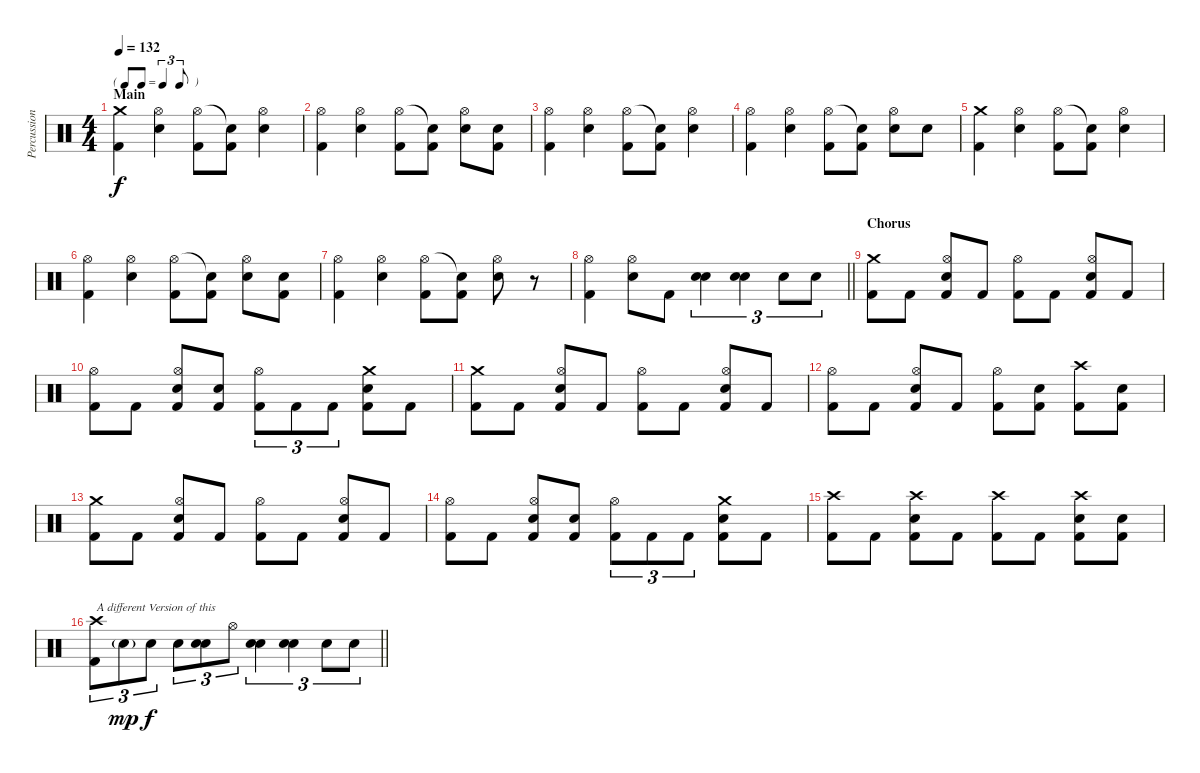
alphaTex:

\track ("Percussion" "Percussion") {instrument percussion}
\staff {score}
\articulation defaults
\ts (4 4)
\tf triplet8th
\section ("" "Main")
\tempo 132
\clef neutral
\ks c
("Crash medium (hit)" "Kick (hit) 2").4{dy f} ("Hi-Hat (open)" "Electric Snare (hit)").4 ("Hi-Hat (open)" "Kick (hit) 2").8 ("Snare (hit)"{t} "Kick (hit) 2").8 ("Hi-Hat (open)" "Electric Snare (hit)").4 |
("Hi-Hat (open)" "Kick (hit) 2").4 ("Hi-Hat (open)" "Electric Snare (hit)").4 ("Hi-Hat (open)" "Kick (hit) 2").8 ("Snare (hit)"{t} "Kick (hit) 2").8 ("Hi-Hat (open)" "Electric Snare (hit)").8 ("Electric Snare (hit)" "Kick (hit) 2").8 |
("Hi-Hat (open)" "Kick (hit) 2").4 ("Hi-Hat (open)" "Electric Snare (hit)").4 ("Hi-Hat (open)" "Kick (hit) 2").8 ("Snare (hit)"{t} "Kick (hit) 2").8 ("Hi-Hat (open)" "Electric Snare (hit)").4 |
("Hi-Hat (open)" "Kick (hit) 2").4 ("Hi-Hat (open)" "Electric Snare (hit)").4 ("Hi-Hat (open)" "Kick (hit) 2").8 ("Snare (hit)"{t} "Kick (hit) 2").8 ("Hi-Hat (open)" "Electric Snare (hit)").8 "Electric Snare (hit)".8 |
("Crash medium (hit)" "Kick (hit) 2").4 ("Hi-Hat (open)" "Electric Snare (hit)").4 ("Hi-Hat (open)" "Kick (hit) 2").8 ("Snare (hit)"{t} "Kick (hit) 2").8 ("Hi-Hat (open)" "Electric Snare (hit)").4 |
("Hi-Hat (open)" "Kick (hit) 2").4 ("Hi-Hat (open)" "Electric Snare (hit)").4 ("Hi-Hat (open)" "Kick (hit) 2").8 ("Snare (hit)"{t} "Kick (hit) 2").8 ("Hi-Hat (open)" "Electric Snare (hit)").8 ("Electric Snare (hit)" "Kick (hit) 2").8 |
("Hi-Hat (open)" "Kick (hit) 2").4 ("Hi-Hat (open)" "Electric Snare (hit)").4 ("Hi-Hat (open)" "Kick (hit) 2").8 ("Snare (hit)"{t} "Kick (hit) 2").8 ("Hi-Hat (open)" "Electric Snare (hit)").8 r.8 |
\barLineRight lightlight
("Hi-Hat (open)" "Kick (hit) 2").4 ("Hi-Hat (open)" "Electric Snare (hit)").8 "Kick (hit) 2".8 ("Electric Snare (hit)" "Electric Snare (hit)").4{tu (3 2)} ("Electric Snare (hit)" "Electric Snare (hit)").4{tu (3 2)} "Electric Snare (hit)".8{tu (3 2)} "Electric Snare (hit)".8{tu (3 2)} |
\section ("" "Chorus")
("Crash medium (hit)" "Kick (hit) 2").8 "Kick (hit) 2".8 ("Hi-Hat (open)" "Electric Snare (hit)" "Kick (hit) 2").8 "Kick (hit) 2".8 ("Hi-Hat (open)" "Kick (hit) 2").8 "Kick (hit) 2".8 ("Hi-Hat (open)" "Electric Snare (hit)" "Kick (hit) 2").8 "Kick (hit) 2".8 |
("Hi-Hat (open)" "Kick (hit) 2").8 "Kick (hit) 2".8 ("Hi-Hat (open)" "Electric Snare (hit)" "Kick (hit) 2").8 ("Electric Snare (hit)" "Kick (hit) 2").8 ("Hi-Hat (open)" "Kick (hit) 2").8{tu (3 2)} "Kick (hit) 2".8{tu (3 2)} "Kick (hit) 2".8{tu (3 2)} ("Crash medium (hit)" "Electric Snare (hit)" "Kick (hit) 2").8 "Kick (hit) 2".8 |
("Crash medium (hit)" "Kick (hit) 2").8 "Kick (hit) 2".8 ("Hi-Hat (open)" "Electric Snare (hit)" "Kick (hit) 2").8 "Kick (hit) 2".8 ("Hi-Hat (open)" "Kick (hit) 2").8 "Kick (hit) 2".8 ("Hi-Hat (open)" "Electric Snare (hit)" "Kick (hit) 2").8 "Kick (hit) 2".8 |
("Hi-Hat (open)" "Kick (hit) 2").8 "Kick (hit) 2".8 ("Hi-Hat (open)" "Electric Snare (hit)" "Kick (hit) 2").8 "Kick (hit) 2".8 ("Hi-Hat (open)" "Kick (hit) 2").8 ("Electric Snare (hit)" "Kick (hit) 2").8 ("Crash high (hit)" "Kick (hit) 2").8 ("Electric Snare (hit)" "Kick (hit) 2").8 |
("Crash medium (hit)" "Kick (hit) 2").8 "Kick (hit) 2".8 ("Hi-Hat (open)" "Electric Snare (hit)" "Kick (hit) 2").8 "Kick (hit) 2".8 ("Hi-Hat (open)" "Kick (hit) 2").8 "Kick (hit) 2".8 ("Hi-Hat (open)" "Electric Snare (hit)" "Kick (hit) 2").8 "Kick (hit) 2".8 |
("Hi-Hat (open)" "Kick (hit) 2").8 "Kick (hit) 2".8 ("Hi-Hat (open)" "Electric Snare (hit)" "Kick (hit) 2").8 ("Electric Snare (hit)" "Kick (hit) 2").8 ("Hi-Hat (open)" "Kick (hit) 2").8{tu (3 2)} "Kick (hit) 2".8{tu (3 2)} "Kick (hit) 2".8{tu (3 2)} ("Crash medium (hit)" "Electric Snare (hit)" "Kick (hit) 2").8 "Kick (hit) 2".8 |
("Crash high (hit)" "Kick (hit) 2").8 "Kick (hit) 2".8 ("Crash high (hit)" "Electric Snare (hit)" "Kick (hit) 2").8 "Kick (hit) 2".8 ("Crash high (hit)" "Kick (hit) 2").8 "Kick (hit) 2".8 ("Crash high (hit)" "Electric Snare (hit)" "Kick (hit) 2").8 ("Electric Snare (hit)" "Kick (hit) 2").8 |
\barLineRight lightlight
("Crash high (hit)" "Kick (hit) 2").8{tu (3 2) txt "A different Version of this"} "Electric Snare (hit)"{g}.8{tu (3 2) dy mp} "Electric Snare (hit)".8{tu (3 2) dy f} "Electric Snare (hit)".8{tu (3 2)} ("Electric Snare (hit)" "Electric Snare (hit)").8{tu (3 2)} "Hi-Hat (open)".8{tu (3 2)} ("Electric Snare (hit)" "Electric Snare (hit)").4{tu (3 2)} ("Electric Snare (hit)" "Electric Snare (hit)").4{tu (3 2)} "Electric Snare (hit)".8{tu (3 2)} "Electric Snare (hit)".8{tu (3 2)}
